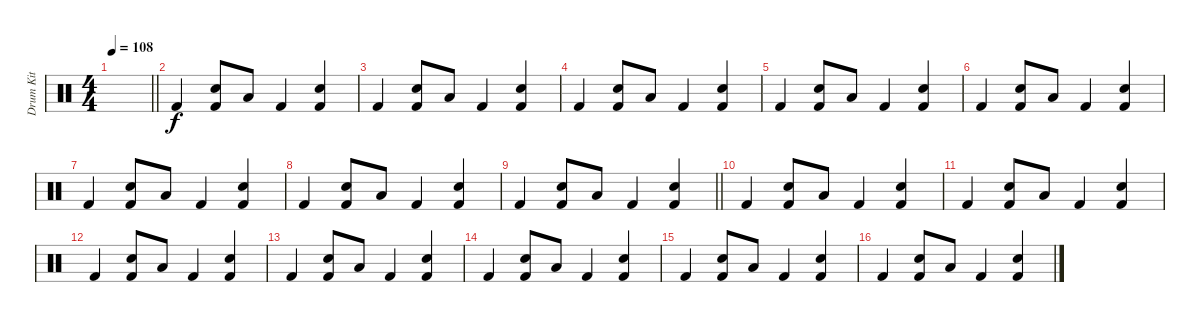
\track ("Drum Kit" "Drum Kit") {instrument percussion}
\staff {score}
\articulation defaults
\ts (4 4)
\tempo 108
\clef neutral
\barLineRight lightlight
\ks c
|
\section ("" "")
"Kick (hit) 2".4 ("Electric Snare (hit)" "Kick (hit) 2").8 "Low Floor Tom (hit)".8 "Kick (hit) 2".4 ("Electric Snare (hit)" "Kick (hit) 2").4 |
"Kick (hit) 2".4 ("Electric Snare (hit)" "Kick (hit) 2").8 "Low Floor Tom (hit)".8 "Kick (hit) 2".4 ("Electric Snare (hit)" "Kick (hit) 2").4 |
"Kick (hit) 2".4 ("Electric Snare (hit)" "Kick (hit) 2").8 "Low Floor Tom (hit)".8 "Kick (hit) 2".4 ("Electric Snare (hit)" "Kick (hit) 2").4 |
"Kick (hit) 2".4 ("Electric Snare (hit)" "Kick (hit) 2").8 "Low Floor Tom (hit)".8 "Kick (hit) 2".4 ("Electric Snare (hit)" "Kick (hit) 2").4 |
"Kick (hit) 2".4 ("Electric Snare (hit)" "Kick (hit) 2").8 "Low Floor Tom (hit)".8 "Kick (hit) 2".4 ("Electric Snare (hit)" "Kick (hit) 2").4 |
"Kick (hit) 2".4 ("Electric Snare (hit)" "Kick (hit) 2").8 "Low Floor Tom (hit)".8 "Kick (hit) 2".4 ("Electric Snare (hit)" "Kick (hit) 2").4 |
"Kick (hit) 2".4 ("Electric Snare (hit)" "Kick (hit) 2").8 "Low Floor Tom (hit)".8 "Kick (hit) 2".4 ("Electric Snare (hit)" "Kick (hit) 2").4 |
\barLineRight lightlight "Kick (hit) 2".4
("Electric Snare (hit)" "Kick (hit) 2").8 "Low Floor Tom (hit)".8 "Kick (hit) 2".4 ("Electric Snare (hit)" "Kick (hit) 2").4 |
\section ("" "")
"Kick (hit) 2".4 ("Electric Snare (hit)" "Kick (hit) 2").8 "Low Floor Tom (hit)".8 "Kick (hit) 2".4 ("Electric Snare (hit)" "Kick (hit) 2").4 |
"Kick (hit) 2".4 ("Electric Snare (hit)" "Kick (hit) 2").8 "Low Floor Tom (hit)".8 "Kick (hit) 2".4 ("Electric Snare (hit)" "Kick (hit) 2").4 |
"Kick (hit) 2".4 ("Electric Snare (hit)" "Kick (hit) 2").8 "Low Floor Tom (hit)".8 "Kick (hit) 2".4 ("Electric Snare (hit)" "Kick (hit) 2").4 |
"Kick (hit) 2".4 ("Electric Snare (hit)" "Kick (hit) 2").8 "Low Floor Tom (hit)".8 "Kick (hit) 2".4 ("Electric Snare (hit)" "Kick (hit) 2").4 |
"Kick (hit) 2".4 ("Electric Snare (hit)" "Kick (hit) 2").8 "Low Floor Tom (hit)".8 "Kick (hit) 2".4 ("Electric Snare (hit)" "Kick (hit) 2").4 |
"Kick (hit) 2".4 ("Electric Snare (hit)" "Kick (hit) 2").8 "Low Floor Tom (hit)".8 "Kick (hit) 2".4 ("Electric Snare (hit)" "Kick (hit) 2").4 |
"Kick (hit) 2".4 ("Electric Snare (hit)" "Kick (hit) 2").8 "Low Floor Tom (hit)".8 "Kick (hit) 2".4 ("Electric Snare (hit)" "Kick (hit) 2").4
